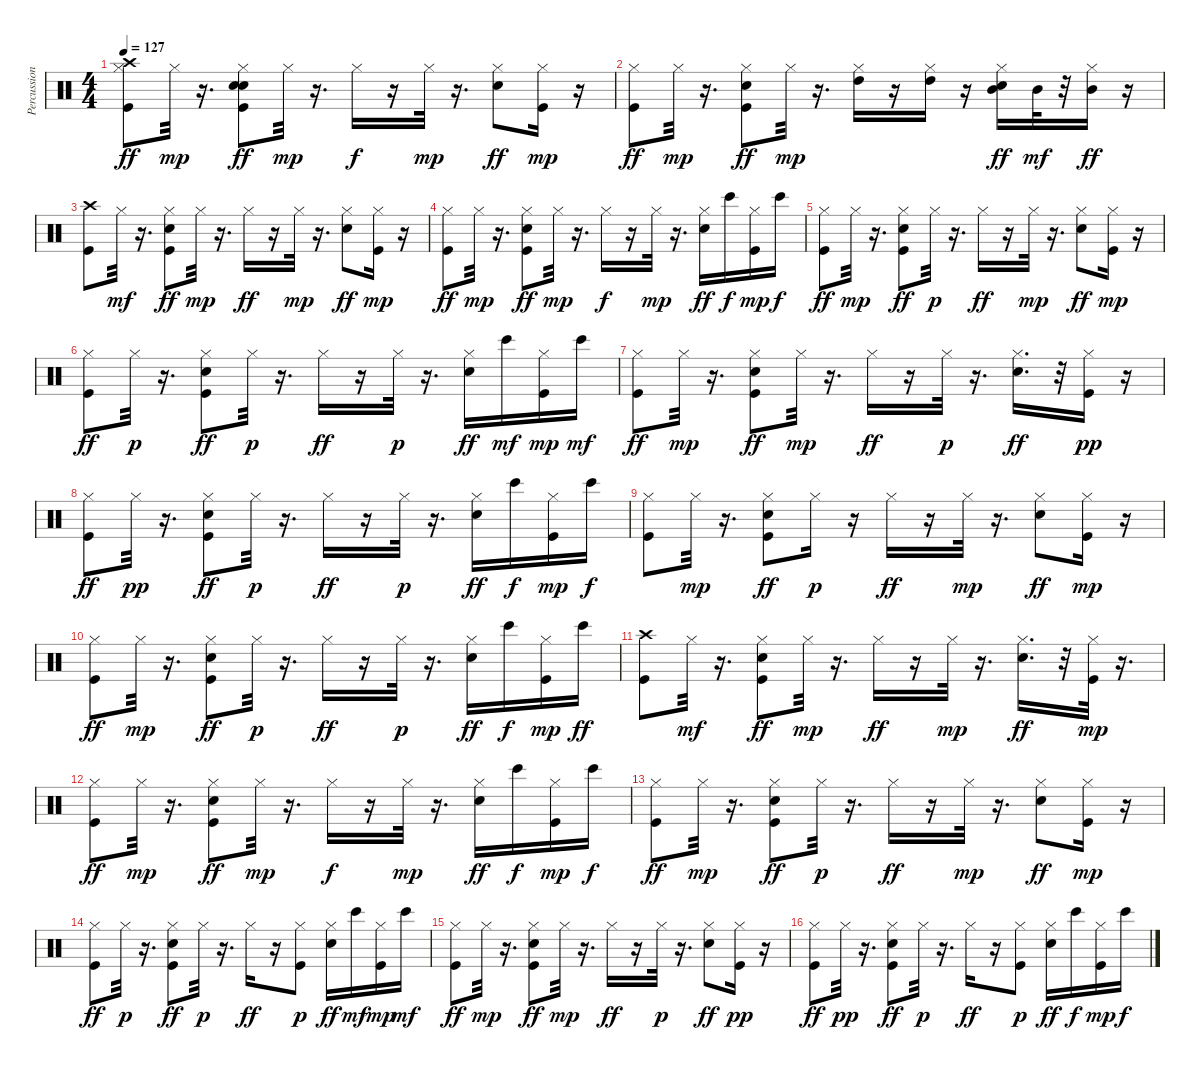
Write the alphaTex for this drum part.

\track ("Percussions (drums + hihats)" "Percussion") {instrument percussion}
\staff {score}
\articulation defaults
\ts (4 4)
\tempo 127
\clef neutral
\ks c
("Kick (hit)" "Hi-Hat (closed)" "Crash high (hit)").8{dy ff} "Hi-Hat (closed)".32{dy mp} r.16{d} ("Kick (hit)" "Snare (hit) 2" "Electric Snare (hit)" "Hi-Hat (closed)").8{dy ff} "Hi-Hat (closed)".32{dy mp} r.16{d} "Hi-Hat (closed)".16{dy f} r.16 "Hi-Hat (closed)".32{dy mp} r.16{d} ("Snare (hit) 2" "Hi-Hat (closed)").8{dy ff} ("Kick (hit)" "Hi-Hat (closed)").16{dy mp} r.16 |
("Kick (hit)" "Hi-Hat (closed)").8{dy ff} "Hi-Hat (closed)".32{dy mp} r.16{d} ("Kick (hit)" "Snare (hit) 2" "Hi-Hat (closed)").8{dy ff} "Hi-Hat (closed)".32{dy mp} r.16{d} ("Hi-Hat (closed)" "High Tom (hit)").16 r.16 ("Hi-Hat (closed)" "High Tom (hit)").16 r.16 ("Snare (hit) 2" "Hi-Hat (closed)" "Mid Tom (hit)").16{dy ff} "Mid Tom (hit)".32{dy mf} r.32 ("Hi-Hat (closed)" "Mid Tom (hit)").16{dy ff} r.16 |
("Kick (hit)" "Crash high (hit)").8 "Hi-Hat (closed)".32{dy mf} r.16{d} ("Kick (hit)" "Snare (hit) 2" "Hi-Hat (closed)").8{dy ff} "Hi-Hat (closed)".32{dy mp} r.16{d} "Hi-Hat (closed)".16{dy ff} r.16 "Hi-Hat (closed)".32{dy mp} r.16{d} ("Snare (hit) 2" "Hi-Hat (closed)").8{dy ff} ("Kick (hit)" "Hi-Hat (closed)").16{dy mp} r.16 |
("Kick (hit)" "Hi-Hat (closed)").8{dy ff} "Hi-Hat (closed)".32{dy mp} r.16{d} ("Kick (hit)" "Snare (hit) 2" "Hi-Hat (closed)").8{dy ff} "Hi-Hat (closed)".32{dy mp} r.16{d} "Hi-Hat (closed)".16{dy f} r.16 "Hi-Hat (closed)".32{dy mp} r.16{d} ("Snare (hit) 2" "Hi-Hat (closed)").16{dy ff} "Bongo High (hit)".16{dy f} ("Kick (hit)" "Hi-Hat (closed)").16{dy mp} "Bongo High (hit)".16{dy f} |
("Kick (hit)" "Hi-Hat (closed)").8{dy ff} "Hi-Hat (closed)".32{dy mp} r.16{d} ("Kick (hit)" "Snare (hit) 2" "Hi-Hat (closed)").8{dy ff} "Hi-Hat (closed)".32{dy p} r.16{d} "Hi-Hat (closed)".16{dy ff} r.16 "Hi-Hat (closed)".32{dy mp} r.16{d} ("Snare (hit) 2" "Hi-Hat (closed)").8{dy ff} ("Kick (hit)" "Hi-Hat (closed)").16{dy mp} r.16 |
("Kick (hit)" "Hi-Hat (closed)").8{dy ff} "Hi-Hat (closed)".32{dy p} r.16{d} ("Kick (hit)" "Snare (hit) 2" "Hi-Hat (closed)").8{dy ff} "Hi-Hat (closed)".32{dy p} r.16{d} "Hi-Hat (closed)".16{dy ff} r.16 "Hi-Hat (closed)".32{dy p} r.16{d} ("Snare (hit) 2" "Hi-Hat (closed)").16{dy ff} "Bongo High (hit)".16{dy mf} ("Kick (hit)" "Hi-Hat (closed)").16{dy mp} "Bongo High (hit)".16{dy mf} |
("Kick (hit)" "Hi-Hat (closed)").8{dy ff} "Hi-Hat (closed)".32{dy mp} r.16{d} ("Kick (hit)" "Snare (hit) 2" "Hi-Hat (closed)").8{dy ff} "Hi-Hat (closed)".32{dy mp} r.16{d} "Hi-Hat (closed)".16{dy ff} r.16 "Hi-Hat (closed)".32{dy p} r.16{d} ("Snare (hit) 2" "Hi-Hat (closed)").16{d dy ff} r.32 ("Kick (hit)" "Hi-Hat (closed)").16{dy pp} r.16 |
("Kick (hit)" "Hi-Hat (closed)").8{dy ff} "Hi-Hat (closed)".32{dy pp} r.16{d} ("Kick (hit)" "Snare (hit) 2" "Hi-Hat (closed)").8{dy ff} "Hi-Hat (closed)".32{dy p} r.16{d} "Hi-Hat (closed)".16{dy ff} r.16 "Hi-Hat (closed)".32{dy p} r.16{d} ("Snare (hit) 2" "Hi-Hat (closed)").16{dy ff} "Bongo High (hit)".16{dy f} ("Kick (hit)" "Hi-Hat (closed)").16{dy mp} "Bongo High (hit)".16{dy f} |
("Kick (hit)" "Hi-Hat (closed)").8 "Hi-Hat (closed)".32{dy mp} r.16{d} ("Kick (hit)" "Snare (hit) 2" "Hi-Hat (closed)").8{dy ff} "Hi-Hat (closed)".16{dy p} r.16 "Hi-Hat (closed)".16{dy ff} r.16 "Hi-Hat (closed)".32{dy mp} r.16{d} ("Snare (hit) 2" "Hi-Hat (closed)").8{dy ff} ("Kick (hit)" "Hi-Hat (closed)").16{dy mp} r.16 |
("Kick (hit)" "Hi-Hat (closed)").8{dy ff} "Hi-Hat (closed)".32{dy mp} r.16{d} ("Kick (hit)" "Snare (hit) 2" "Hi-Hat (closed)").8{dy ff} "Hi-Hat (closed)".32{dy p} r.16{d} "Hi-Hat (closed)".16{dy ff} r.16 "Hi-Hat (closed)".32{dy p} r.16{d} ("Snare (hit) 2" "Hi-Hat (closed)").16{dy ff} "Bongo High (hit)".16{dy f} ("Kick (hit)" "Hi-Hat (closed)").16{dy mp} "Bongo High (hit)".16{dy ff} |
("Kick (hit)" "Crash high (hit)").8 "Hi-Hat (closed)".32{dy mf} r.16{d} ("Kick (hit)" "Snare (hit) 2" "Hi-Hat (closed)").8{dy ff} "Hi-Hat (closed)".32{dy mp} r.16{d} "Hi-Hat (closed)".16{dy ff} r.16 "Hi-Hat (closed)".32{dy mp} r.16{d} ("Snare (hit) 2" "Hi-Hat (closed)").16{d dy ff} r.32 ("Kick (hit)" "Hi-Hat (closed)").32{dy mp} r.16{d} |
("Kick (hit)" "Hi-Hat (closed)").8{dy ff} "Hi-Hat (closed)".32{dy mp} r.16{d} ("Kick (hit)" "Snare (hit) 2" "Hi-Hat (closed)").8{dy ff} "Hi-Hat (closed)".32{dy mp} r.16{d} "Hi-Hat (closed)".16{dy f} r.16 "Hi-Hat (closed)".32{dy mp} r.16{d} ("Snare (hit) 2" "Hi-Hat (closed)").16{dy ff} "Bongo High (hit)".16{dy f} ("Kick (hit)" "Hi-Hat (closed)").16{dy mp} "Bongo High (hit)".16{dy f} |
("Kick (hit)" "Hi-Hat (closed)").8{dy ff} "Hi-Hat (closed)".32{dy mp} r.16{d} ("Kick (hit)" "Snare (hit) 2" "Hi-Hat (closed)").8{dy ff} "Hi-Hat (closed)".32{dy p} r.16{d} "Hi-Hat (closed)".16{dy ff} r.16 "Hi-Hat (closed)".32{dy mp} r.16{d} ("Snare (hit) 2" "Hi-Hat (closed)").8{dy ff} ("Kick (hit)" "Hi-Hat (closed)").16{dy mp} r.16 |
("Kick (hit)" "Hi-Hat (closed)").8{dy ff} "Hi-Hat (closed)".32{dy p} r.16{d} ("Kick (hit)" "Snare (hit) 2" "Hi-Hat (closed)").8{dy ff} "Hi-Hat (closed)".32{dy p} r.16{d} "Hi-Hat (closed)".16{dy ff} r.16 ("Kick (hit)" "Hi-Hat (closed)").8{dy p} ("Snare (hit) 2" "Hi-Hat (closed)").16{dy ff} "Bongo High (hit)".16{dy mf} ("Kick (hit)" "Hi-Hat (closed)").16{dy mp} "Bongo High (hit)".16{dy mf} |
("Kick (hit)" "Hi-Hat (closed)").8{dy ff} "Hi-Hat (closed)".32{dy mp} r.16{d} ("Kick (hit)" "Snare (hit) 2" "Hi-Hat (closed)").8{dy ff} "Hi-Hat (closed)".32{dy mp} r.16{d} "Hi-Hat (closed)".16{dy ff} r.16 "Hi-Hat (closed)".32{dy p} r.16{d} ("Snare (hit) 2" "Hi-Hat (closed)").8{dy ff} ("Kick (hit)" "Hi-Hat (closed)").16{dy pp} r.16 |
("Kick (hit)" "Hi-Hat (closed)").8{dy ff} "Hi-Hat (closed)".32{dy pp} r.16{d} ("Kick (hit)" "Snare (hit) 2" "Hi-Hat (closed)").8{dy ff} "Hi-Hat (closed)".32{dy p} r.16{d} "Hi-Hat (closed)".16{dy ff} r.16 ("Kick (hit)" "Hi-Hat (closed)").8{dy p} ("Snare (hit) 2" "Hi-Hat (closed)").16{dy ff} "Bongo High (hit)".16{dy f} ("Kick (hit)" "Hi-Hat (closed)").16{dy mp} "Bongo High (hit)".16{dy f}
